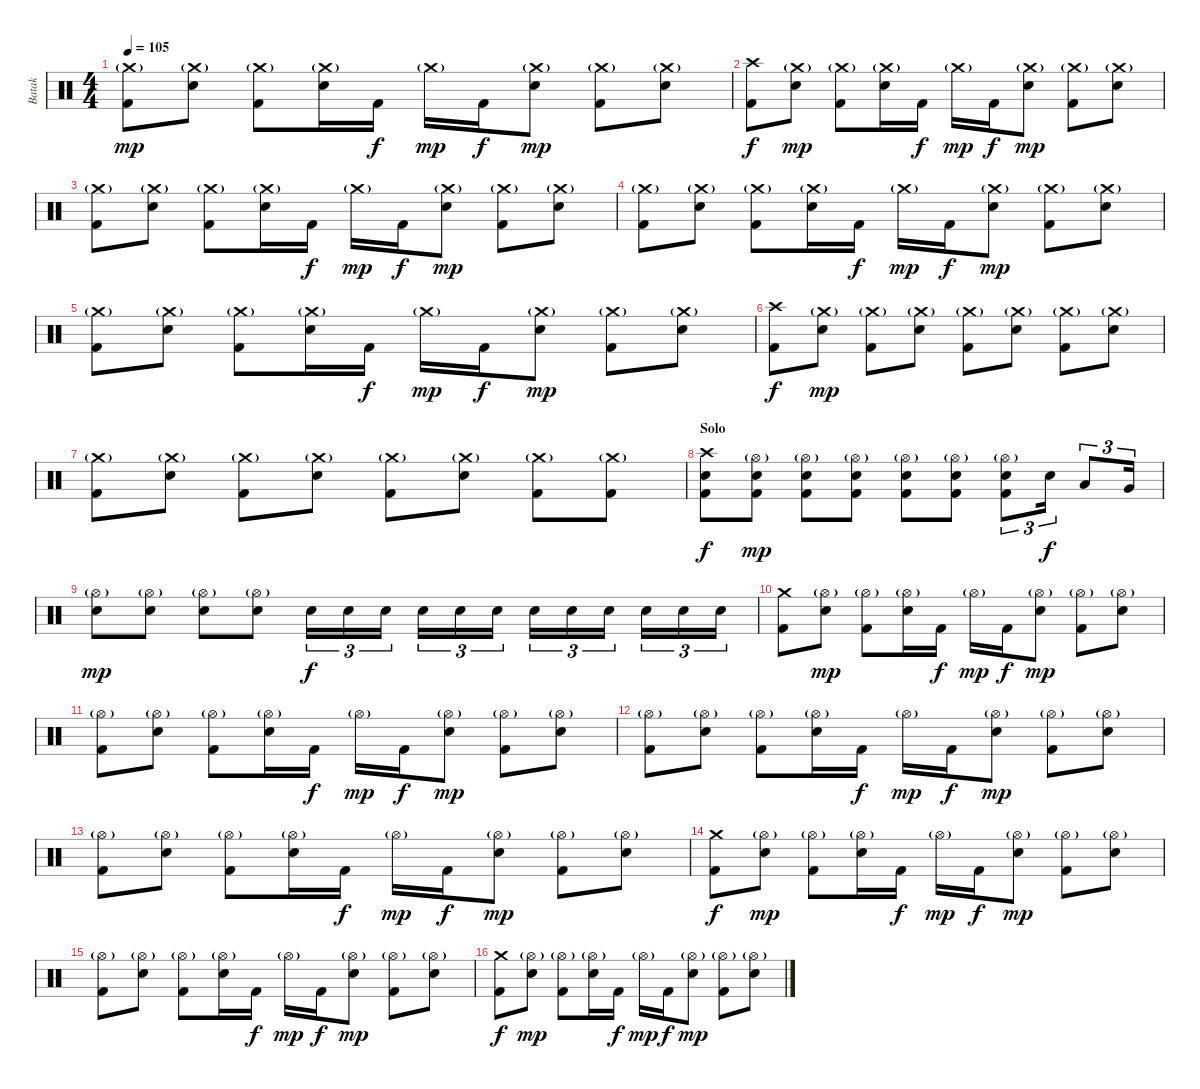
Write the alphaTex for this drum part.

\track ("Batak" "Batak") {instrument percussion}
\staff {score}
\articulation defaults
\ts (4 4)
\tempo 105
\clef neutral
\ks c
("Crash medium (hit)"{g} "Kick (hit) 2").8{dy mp} ("Crash medium (hit)"{g} "Electric Snare (hit)").8 ("Crash medium (hit)"{g} "Kick (hit) 2").8 ("Crash medium (hit)"{g} "Electric Snare (hit)").16 "Kick (hit) 2".16{dy f} "Crash medium (hit)"{g}.16{dy mp} "Kick (hit) 2".16{dy f} ("Crash medium (hit)"{g} "Electric Snare (hit)").8{dy mp} ("Crash medium (hit)"{g} "Kick (hit) 2").8 ("Crash medium (hit)"{g} "Electric Snare (hit)").8 |
("Crash high (hit)" "Kick (hit) 2").8{dy f} ("Crash medium (hit)"{g} "Electric Snare (hit)").8{dy mp} ("Crash medium (hit)"{g} "Kick (hit) 2").8 ("Crash medium (hit)"{g} "Electric Snare (hit)").16 "Kick (hit) 2".16{dy f} "Crash medium (hit)"{g}.16{dy mp} "Kick (hit) 2".16{dy f} ("Crash medium (hit)"{g} "Electric Snare (hit)").8{dy mp} ("Crash medium (hit)"{g} "Kick (hit) 2").8 ("Crash medium (hit)"{g} "Electric Snare (hit)").8 |
("Crash medium (hit)"{g} "Kick (hit) 2").8 ("Crash medium (hit)"{g} "Electric Snare (hit)").8 ("Crash medium (hit)"{g} "Kick (hit) 2").8 ("Crash medium (hit)"{g} "Electric Snare (hit)").16 "Kick (hit) 2".16{dy f} "Crash medium (hit)"{g}.16{dy mp} "Kick (hit) 2".16{dy f} ("Crash medium (hit)"{g} "Electric Snare (hit)").8{dy mp} ("Crash medium (hit)"{g} "Kick (hit) 2").8 ("Crash medium (hit)"{g} "Electric Snare (hit)").8 |
("Crash medium (hit)"{g} "Kick (hit) 2").8 ("Crash medium (hit)"{g} "Electric Snare (hit)").8 ("Crash medium (hit)"{g} "Kick (hit) 2").8 ("Crash medium (hit)"{g} "Electric Snare (hit)").16 "Kick (hit) 2".16{dy f} "Crash medium (hit)"{g}.16{dy mp} "Kick (hit) 2".16{dy f} ("Crash medium (hit)"{g} "Electric Snare (hit)").8{dy mp} ("Crash medium (hit)"{g} "Kick (hit) 2").8 ("Crash medium (hit)"{g} "Electric Snare (hit)").8 |
("Crash medium (hit)"{g} "Kick (hit) 2").8 ("Crash medium (hit)"{g} "Electric Snare (hit)").8 ("Crash medium (hit)"{g} "Kick (hit) 2").8 ("Crash medium (hit)"{g} "Electric Snare (hit)").16 "Kick (hit) 2".16{dy f} "Crash medium (hit)"{g}.16{dy mp} "Kick (hit) 2".16{dy f} ("Crash medium (hit)"{g} "Electric Snare (hit)").8{dy mp} ("Crash medium (hit)"{g} "Kick (hit) 2").8 ("Crash medium (hit)"{g} "Electric Snare (hit)").8 |
("Crash high (hit)" "Kick (hit) 2").8{dy f} ("Crash medium (hit)"{g} "Electric Snare (hit)").8{dy mp} ("Crash medium (hit)"{g} "Kick (hit) 2").8 ("Crash medium (hit)"{g} "Electric Snare (hit)").8 ("Crash medium (hit)"{g} "Kick (hit) 2").8 ("Crash medium (hit)"{g} "Electric Snare (hit)").8 ("Crash medium (hit)"{g} "Kick (hit) 2").8 ("Crash medium (hit)"{g} "Electric Snare (hit)").8 |
("Crash medium (hit)"{g} "Kick (hit) 2").8 ("Crash medium (hit)"{g} "Electric Snare (hit)").8 ("Crash medium (hit)"{g} "Kick (hit) 2").8 ("Crash medium (hit)"{g} "Electric Snare (hit)").8 ("Crash medium (hit)"{g} "Kick (hit) 2").8 ("Crash medium (hit)"{g} "Electric Snare (hit)").8 ("Crash medium (hit)"{g} "Kick (hit) 2").8 ("Crash medium (hit)"{g} "Kick (hit) 2").8 |
\section ("" "Solo")
("Crash high (hit)" "Electric Snare (hit)" "Kick (hit) 2").8{dy f} ("Hi-Hat (open)"{g} "Electric Snare (hit)" "Kick (hit) 2").8{dy mp} ("Hi-Hat (open)"{g} "Electric Snare (hit)" "Kick (hit) 2").8 ("Hi-Hat (open)"{g} "Electric Snare (hit)" "Kick (hit) 2").8 ("Hi-Hat (open)"{g} "Electric Snare (hit)" "Kick (hit) 2").8 ("Hi-Hat (open)"{g} "Electric Snare (hit)" "Kick (hit) 2").8 ("Hi-Hat (open)"{g} "Electric Snare (hit)" "Kick (hit) 2").8{tu (3 2)} "Electric Snare (hit)".16{tu (3 2) dy f} "Low Tom (hit)".8{tu (3 2)} "Very Low Tom (hit)".16{tu (3 2)} |
("Hi-Hat (open)"{g} "Electric Snare (hit)").8{dy mp} ("Hi-Hat (open)"{g} "Electric Snare (hit)").8 ("Hi-Hat (open)"{g} "Electric Snare (hit)").8 ("Hi-Hat (open)"{g} "Electric Snare (hit)").8 "Electric Snare (hit)".16{tu (3 2) dy f} "Electric Snare (hit)".16{tu (3 2)} "Electric Snare (hit)".16{tu (3 2)} "Electric Snare (hit)".16{tu (3 2)} "Electric Snare (hit)".16{tu (3 2)} "Electric Snare (hit)".16{tu (3 2)} "Electric Snare (hit)".16{tu (3 2)} "Electric Snare (hit)".16{tu (3 2)} "Electric Snare (hit)".16{tu (3 2)} "Electric Snare (hit)".16{tu (3 2)} "Electric Snare (hit)".16{tu (3 2)} "Electric Snare (hit)".16{tu (3 2)} |
("Crash medium (hit)" "Kick (hit) 2").8 ("Hi-Hat (open)"{g} "Electric Snare (hit)").8{dy mp} ("Hi-Hat (open)"{g} "Kick (hit) 2").8 ("Hi-Hat (open)"{g} "Electric Snare (hit)").16 "Kick (hit) 2".16{dy f} "Hi-Hat (open)"{g}.16{dy mp} "Kick (hit) 2".16{dy f} ("Hi-Hat (open)"{g} "Electric Snare (hit)").8{dy mp} ("Hi-Hat (open)"{g} "Kick (hit) 2").8 ("Hi-Hat (open)"{g} "Electric Snare (hit)").8 |
("Hi-Hat (open)"{g} "Kick (hit) 2").8 ("Hi-Hat (open)"{g} "Electric Snare (hit)").8 ("Hi-Hat (open)"{g} "Kick (hit) 2").8 ("Hi-Hat (open)"{g} "Electric Snare (hit)").16 "Kick (hit) 2".16{dy f} "Hi-Hat (open)"{g}.16{dy mp} "Kick (hit) 2".16{dy f} ("Hi-Hat (open)"{g} "Electric Snare (hit)").8{dy mp} ("Hi-Hat (open)"{g} "Kick (hit) 2").8 ("Hi-Hat (open)"{g} "Electric Snare (hit)").8 |
("Hi-Hat (open)"{g} "Kick (hit) 2").8 ("Hi-Hat (open)"{g} "Electric Snare (hit)").8 ("Hi-Hat (open)"{g} "Kick (hit) 2").8 ("Hi-Hat (open)"{g} "Electric Snare (hit)").16 "Kick (hit) 2".16{dy f} "Hi-Hat (open)"{g}.16{dy mp} "Kick (hit) 2".16{dy f} ("Hi-Hat (open)"{g} "Electric Snare (hit)").8{dy mp} ("Hi-Hat (open)"{g} "Kick (hit) 2").8 ("Hi-Hat (open)"{g} "Electric Snare (hit)").8 |
("Hi-Hat (open)"{g} "Kick (hit) 2").8 ("Hi-Hat (open)"{g} "Electric Snare (hit)").8 ("Hi-Hat (open)"{g} "Kick (hit) 2").8 ("Hi-Hat (open)"{g} "Electric Snare (hit)").16 "Kick (hit) 2".16{dy f} "Hi-Hat (open)"{g}.16{dy mp} "Kick (hit) 2".16{dy f} ("Hi-Hat (open)"{g} "Electric Snare (hit)").8{dy mp} ("Hi-Hat (open)"{g} "Kick (hit) 2").8 ("Hi-Hat (open)"{g} "Electric Snare (hit)").8 |
("Crash medium (hit)" "Kick (hit) 2").8{dy f} ("Hi-Hat (open)"{g} "Electric Snare (hit)").8{dy mp} ("Hi-Hat (open)"{g} "Kick (hit) 2").8 ("Hi-Hat (open)"{g} "Electric Snare (hit)").16 "Kick (hit) 2".16{dy f} "Hi-Hat (open)"{g}.16{dy mp} "Kick (hit) 2".16{dy f} ("Hi-Hat (open)"{g} "Electric Snare (hit)").8{dy mp} ("Hi-Hat (open)"{g} "Kick (hit) 2").8 ("Hi-Hat (open)"{g} "Electric Snare (hit)").8 |
("Hi-Hat (open)"{g} "Kick (hit) 2").8 ("Hi-Hat (open)"{g} "Electric Snare (hit)").8 ("Hi-Hat (open)"{g} "Kick (hit) 2").8 ("Hi-Hat (open)"{g} "Electric Snare (hit)").16 "Kick (hit) 2".16{dy f} "Hi-Hat (open)"{g}.16{dy mp} "Kick (hit) 2".16{dy f} ("Hi-Hat (open)"{g} "Electric Snare (hit)").8{dy mp} ("Hi-Hat (open)"{g} "Kick (hit) 2").8 ("Hi-Hat (open)"{g} "Electric Snare (hit)").8 |
("Crash medium (hit)" "Kick (hit) 2").8{dy f} ("Hi-Hat (open)"{g} "Electric Snare (hit)").8{dy mp} ("Hi-Hat (open)"{g} "Kick (hit) 2").8 ("Hi-Hat (open)"{g} "Electric Snare (hit)").16 "Kick (hit) 2".16{dy f} "Hi-Hat (open)"{g}.16{dy mp} "Kick (hit) 2".16{dy f} ("Hi-Hat (open)"{g} "Electric Snare (hit)").8{dy mp} ("Hi-Hat (open)"{g} "Kick (hit) 2").8 ("Hi-Hat (open)"{g} "Electric Snare (hit)").8
